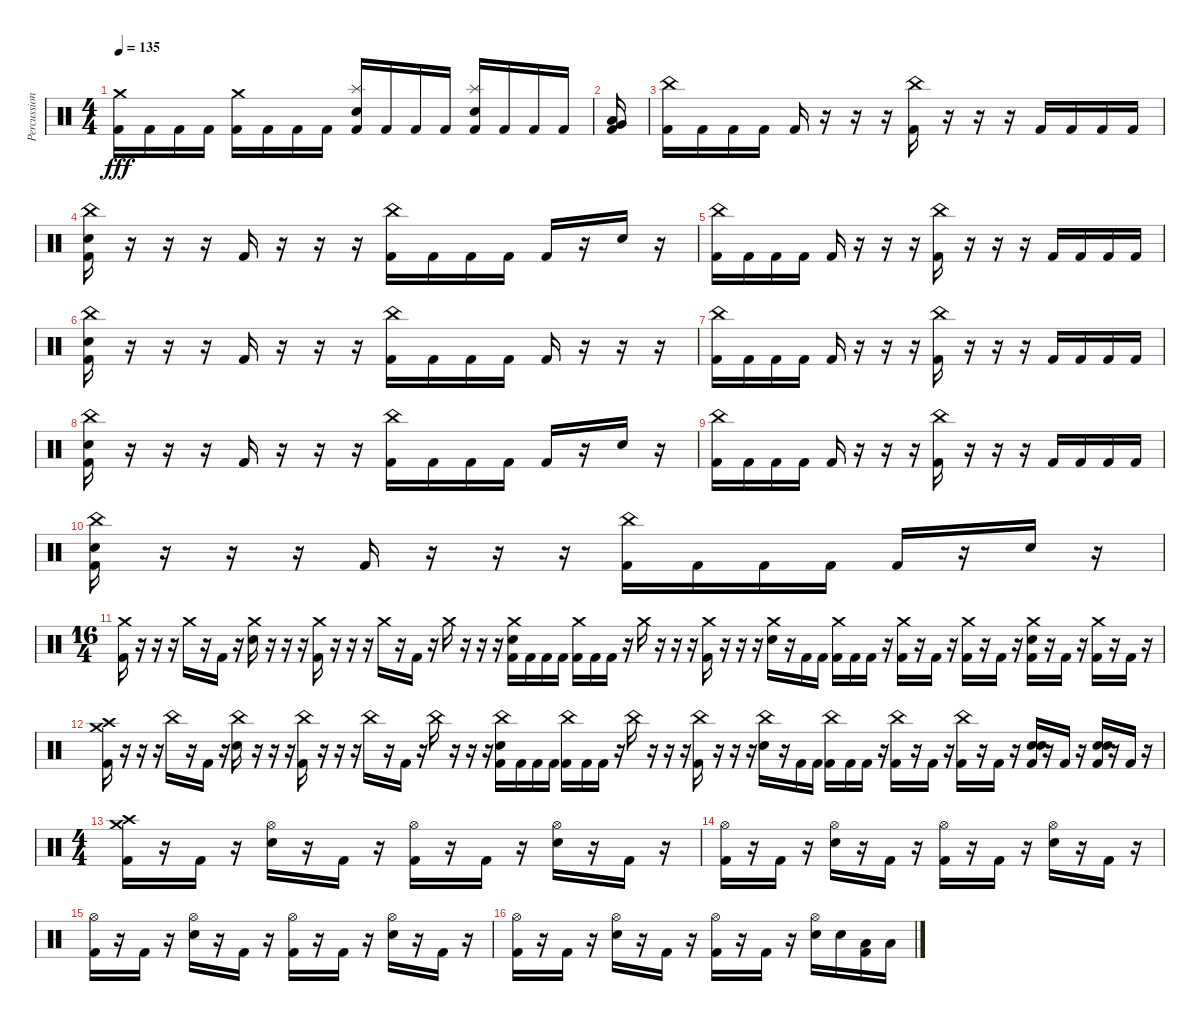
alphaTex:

\track ("Percussion" "Percussion") {instrument percussion}
\staff {score}
\articulation defaults
\ts (4 4)
\tempo 135
\clef neutral
\ks c
("Crash medium (hit)" "Kick (hit) 2").16{dy fff} "Kick (hit) 2".16 "Kick (hit) 2".16 "Kick (hit) 2".16 ("Crash medium (hit)" "Kick (hit) 2").16 "Kick (hit) 2".16 "Kick (hit) 2".16 "Kick (hit) 2".16 ("Splash (hit)" "Snare (hit) 2" "Kick (hit) 2").16 "Kick (hit) 2".16 "Kick (hit) 2".16 "Kick (hit) 2".16 ("Splash (hit)" "Snare (hit) 2" "Kick (hit) 2").16 "Kick (hit) 2".16 "Kick (hit) 2".16 "Kick (hit) 2".16 |
("Very Low Tom (hit)" "Low Floor Tom (hit)" "Kick (hit) 2").16 |
("China (hit)" "Kick (hit) 2").16 "Kick (hit) 2".16 "Kick (hit) 2".16 "Kick (hit) 2".16 "Kick (hit) 2".16 r.16 r.16 r.16 ("China (hit)" "Kick (hit) 2").16 r.16 r.16 r.16 "Kick (hit) 2".16 "Kick (hit) 2".16 "Kick (hit) 2".16 "Kick (hit) 2".16 |
("China (hit)" "Snare (hit) 2" "Kick (hit) 2").16 r.16 r.16 r.16 "Kick (hit) 2".16 r.16 r.16 r.16 ("China (hit)" "Kick (hit) 2").16 "Kick (hit) 2".16 "Kick (hit) 2".16 "Kick (hit) 2".16 "Kick (hit) 2".16 r.16 "Snare (hit) 2".16 r.16 |
("China (hit)" "Kick (hit) 2").16 "Kick (hit) 2".16 "Kick (hit) 2".16 "Kick (hit) 2".16 "Kick (hit) 2".16 r.16 r.16 r.16 ("China (hit)" "Kick (hit) 2").16 r.16 r.16 r.16 "Kick (hit) 2".16 "Kick (hit) 2".16 "Kick (hit) 2".16 "Kick (hit) 2".16 |
("China (hit)" "Snare (hit) 2" "Kick (hit) 2").16 r.16 r.16 r.16 "Kick (hit) 2".16 r.16 r.16 r.16 ("China (hit)" "Kick (hit) 2").16 "Kick (hit) 2".16 "Kick (hit) 2".16 "Kick (hit) 2".16 "Kick (hit) 2".16 r.16 r.16 r.16 |
("China (hit)" "Kick (hit) 2").16 "Kick (hit) 2".16 "Kick (hit) 2".16 "Kick (hit) 2".16 "Kick (hit) 2".16 r.16 r.16 r.16 ("China (hit)" "Kick (hit) 2").16 r.16 r.16 r.16 "Kick (hit) 2".16 "Kick (hit) 2".16 "Kick (hit) 2".16 "Kick (hit) 2".16 |
("China (hit)" "Snare (hit) 2" "Kick (hit) 2").16 r.16 r.16 r.16 "Kick (hit) 2".16 r.16 r.16 r.16 ("China (hit)" "Kick (hit) 2").16 "Kick (hit) 2".16 "Kick (hit) 2".16 "Kick (hit) 2".16 "Kick (hit) 2".16 r.16 "Snare (hit) 2".16 r.16 |
("China (hit)" "Kick (hit) 2").16 "Kick (hit) 2".16 "Kick (hit) 2".16 "Kick (hit) 2".16 "Kick (hit) 2".16 r.16 r.16 r.16 ("China (hit)" "Kick (hit) 2").16 r.16 r.16 r.16 "Kick (hit) 2".16 "Kick (hit) 2".16 "Kick (hit) 2".16 "Kick (hit) 2".16 |
("China (hit)" "Snare (hit) 2" "Kick (hit) 2").16 r.16 r.16 r.16 "Kick (hit) 2".16 r.16 r.16 r.16 ("China (hit)" "Kick (hit) 2").16 "Kick (hit) 2".16 "Kick (hit) 2".16 "Kick (hit) 2".16 "Kick (hit) 2".16 r.16 "Snare (hit) 2".16 r.16 |
\ts (16 4)
("Crash medium (hit)" "Kick (hit) 2").16 r.16 r.16 r.16 "Crash medium (hit)".16 r.16 "Kick (hit) 2".16 r.16 ("Crash medium (hit)" "Snare (hit) 2").16 r.16 r.16 r.16 ("Crash medium (hit)" "Kick (hit) 2").16 r.16 r.16 r.16 "Crash medium (hit)".16 r.16 "Kick (hit) 2".16 r.16 "Crash medium (hit)".16 r.16 r.16 r.16 ("Crash medium (hit)" "Snare (hit) 2" "Kick (hit) 2").16 "Kick (hit) 2".16 "Kick (hit) 2".16 "Kick (hit) 2".16 ("Crash medium (hit)" "Kick (hit) 2").16 "Kick (hit) 2".16 "Kick (hit) 2".16 r.16 "Crash medium (hit)".16 r.16 r.16 r.16 ("Crash medium (hit)" "Kick (hit) 2").16 r.16 r.16 r.16 ("Crash medium (hit)" "Snare (hit) 2").16 r.16 "Kick (hit) 2".16 "Kick (hit) 2".16 ("Crash medium (hit)" "Kick (hit) 2").16 "Kick (hit) 2".16 "Kick (hit) 2".16 r.16 ("Crash medium (hit)" "Kick (hit) 2").16 r.16 "Kick (hit) 2".16 r.16 ("Crash medium (hit)" "Kick (hit) 2").16 r.16 "Kick (hit) 2".16 r.16 ("Crash medium (hit)" "Snare (hit) 2" "Kick (hit) 2").16 r.16 "Kick (hit) 2".16 r.16 ("Crash medium (hit)" "Kick (hit) 2").16 r.16 "Kick (hit) 2".16 r.16 |
("Crash medium (hit)" "Crash high (hit)" "Kick (hit) 2").16 r.16 r.16 r.16 "China (hit)".16 r.16 "Kick (hit) 2".16 r.16 ("China (hit)" "Snare (hit) 2").16 r.16 r.16 r.16 ("China (hit)" "Kick (hit) 2").16 r.16 r.16 r.16 "China (hit)".16 r.16 "Kick (hit) 2".16 r.16 "China (hit)".16 r.16 r.16 r.16 ("China (hit)" "Snare (hit) 2" "Kick (hit) 2").16 "Kick (hit) 2".16 "Kick (hit) 2".16 "Kick (hit) 2".16 ("China (hit)" "Kick (hit) 2").16 "Kick (hit) 2".16 "Kick (hit) 2".16 r.16 "China (hit)".16 r.16 r.16 r.16 ("China (hit)" "Kick (hit) 2").16 r.16 r.16 r.16 ("China (hit)" "Snare (hit) 2").16 r.16 "Kick (hit) 2".16 "Kick (hit) 2".16 ("China (hit)" "Kick (hit) 2").16 "Kick (hit) 2".16 "Kick (hit) 2".16 r.16 ("China (hit)" "Kick (hit) 2").16 r.16 "Kick (hit) 2".16 r.16 ("China (hit)" "Kick (hit) 2").16 r.16 "Kick (hit) 2".16 r.16 ("Snare (hit) 2" "Snare (hit) 2" "Kick (hit) 2").16 r.16 "Kick (hit) 2".16 r.16 ("Snare (hit) 2" "Snare (hit) 2" "Kick (hit) 2").16 r.16 "Kick (hit) 2".16 r.16 |
\ts (4 4)
("Crash medium (hit)" "Crash high (hit)" "Kick (hit) 2").16 r.16 "Kick (hit) 2".16 r.16 ("Hi-Hat (open)" "Snare (hit) 2").16 r.16 "Kick (hit) 2".16 r.16 ("Hi-Hat (open)" "Kick (hit) 2").16 r.16 "Kick (hit) 2".16 r.16 ("Hi-Hat (open)" "Snare (hit) 2").16 r.16 "Kick (hit) 2".16 r.16 |
("Hi-Hat (open)" "Kick (hit) 2").16 r.16 "Kick (hit) 2".16 r.16 ("Hi-Hat (open)" "Snare (hit) 2").16 r.16 "Kick (hit) 2".16 r.16 ("Hi-Hat (open)" "Kick (hit) 2").16 r.16 "Kick (hit) 2".16 r.16 ("Hi-Hat (open)" "Snare (hit) 2").16 r.16 "Kick (hit) 2".16 r.16 |
("Hi-Hat (open)" "Kick (hit) 2").16 r.16 "Kick (hit) 2".16 r.16 ("Hi-Hat (open)" "Snare (hit) 2").16 r.16 "Kick (hit) 2".16 r.16 ("Hi-Hat (open)" "Kick (hit) 2").16 r.16 "Kick (hit) 2".16 r.16 ("Hi-Hat (open)" "Snare (hit) 2").16 r.16 "Kick (hit) 2".16 r.16 |
("Hi-Hat (open)" "Kick (hit) 2").16 r.16 "Kick (hit) 2".16 r.16 ("Hi-Hat (open)" "Snare (hit) 2").16 r.16 "Kick (hit) 2".16 r.16 ("Hi-Hat (open)" "Kick (hit) 2").16 r.16 "Kick (hit) 2".16 r.16 ("Hi-Hat (open)" "Snare (hit) 2").16 "Snare (hit) 2".16 ("Low Tom (hit)" "Kick (hit) 2").16 "Low Tom (hit)".16
